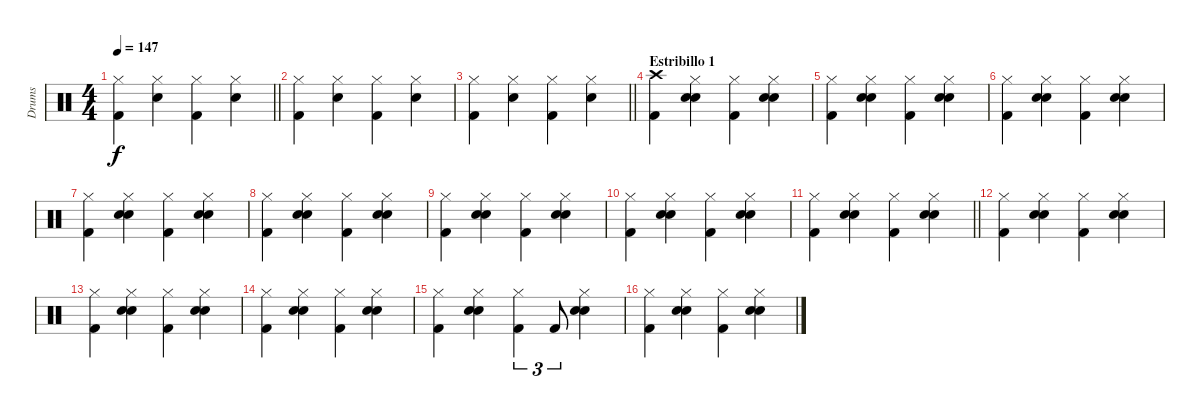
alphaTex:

\track ("Drums" "Drums") {instrument percussion}
\staff {score}
\articulation defaults
\ts (4 4)
\tempo 147
\clef neutral
\barLineRight lightlight
\ks c
("Hi-Hat (closed)" "Kick (hit) 2").4{dy f} ("Hi-Hat (closed)" "Electric Snare (hit)").4 ("Hi-Hat (closed)" "Kick (hit) 2").4 ("Hi-Hat (closed)" "Electric Snare (hit)").4 |
("Hi-Hat (closed)" "Kick (hit) 2").4 ("Hi-Hat (closed)" "Electric Snare (hit)").4 ("Hi-Hat (closed)" "Kick (hit) 2").4 ("Hi-Hat (closed)" "Electric Snare (hit)").4 |
\barLineRight lightlight
("Hi-Hat (closed)" "Kick (hit) 2").4 ("Hi-Hat (closed)" "Electric Snare (hit)").4 ("Hi-Hat (closed)" "Kick (hit) 2").4 ("Hi-Hat (closed)" "Electric Snare (hit)").4 |
\section ("" "Estribillo 1")
("Crash high (hit)" "Kick (hit) 2").4 ("Hi-Hat (closed)" "Electric Snare (hit)" "Hand Clap (hit)").4 ("Hi-Hat (closed)" "Kick (hit) 2").4 ("Hi-Hat (closed)" "Electric Snare (hit)" "Hand Clap (hit)").4 |
("Hi-Hat (closed)" "Kick (hit) 2").4 ("Hi-Hat (closed)" "Electric Snare (hit)" "Hand Clap (hit)").4 ("Hi-Hat (closed)" "Kick (hit) 2").4 ("Hi-Hat (closed)" "Electric Snare (hit)" "Hand Clap (hit)").4 |
("Hi-Hat (closed)" "Kick (hit) 2").4 ("Hi-Hat (closed)" "Electric Snare (hit)" "Hand Clap (hit)").4 ("Hi-Hat (closed)" "Kick (hit) 2").4 ("Hi-Hat (closed)" "Electric Snare (hit)" "Hand Clap (hit)").4 |
("Hi-Hat (closed)" "Kick (hit) 2").4 ("Hi-Hat (closed)" "Electric Snare (hit)" "Hand Clap (hit)").4 ("Hi-Hat (closed)" "Kick (hit) 2").4 ("Hi-Hat (closed)" "Electric Snare (hit)" "Hand Clap (hit)").4 |
("Hi-Hat (closed)" "Kick (hit) 2").4 ("Hi-Hat (closed)" "Electric Snare (hit)" "Hand Clap (hit)").4 ("Hi-Hat (closed)" "Kick (hit) 2").4 ("Hi-Hat (closed)" "Electric Snare (hit)" "Hand Clap (hit)").4 |
("Hi-Hat (closed)" "Kick (hit) 2").4 ("Hi-Hat (closed)" "Electric Snare (hit)" "Hand Clap (hit)").4 ("Hi-Hat (closed)" "Kick (hit) 2").4 ("Hi-Hat (closed)" "Electric Snare (hit)" "Hand Clap (hit)").4 |
("Hi-Hat (closed)" "Kick (hit) 2").4 ("Hi-Hat (closed)" "Electric Snare (hit)" "Hand Clap (hit)").4 ("Hi-Hat (closed)" "Kick (hit) 2").4 ("Hi-Hat (closed)" "Electric Snare (hit)" "Hand Clap (hit)").4 |
\barLineRight lightlight
("Hi-Hat (closed)" "Kick (hit) 2").4 ("Hi-Hat (closed)" "Electric Snare (hit)" "Hand Clap (hit)").4 ("Hi-Hat (closed)" "Kick (hit) 2").4 ("Hi-Hat (closed)" "Electric Snare (hit)" "Hand Clap (hit)").4 |
("Hi-Hat (closed)" "Kick (hit) 2").4 ("Hi-Hat (closed)" "Electric Snare (hit)" "Hand Clap (hit)").4 ("Hi-Hat (closed)" "Kick (hit) 2").4 ("Hi-Hat (closed)" "Electric Snare (hit)" "Hand Clap (hit)").4 |
("Hi-Hat (closed)" "Kick (hit) 2").4 ("Hi-Hat (closed)" "Electric Snare (hit)" "Hand Clap (hit)").4 ("Hi-Hat (closed)" "Kick (hit) 2").4 ("Hi-Hat (closed)" "Electric Snare (hit)" "Hand Clap (hit)").4 |
("Hi-Hat (closed)" "Kick (hit) 2").4 ("Hi-Hat (closed)" "Electric Snare (hit)" "Hand Clap (hit)").4 ("Hi-Hat (closed)" "Kick (hit) 2").4 ("Hi-Hat (closed)" "Electric Snare (hit)" "Hand Clap (hit)").4 |
("Hi-Hat (closed)" "Kick (hit) 2").4 ("Hi-Hat (closed)" "Electric Snare (hit)" "Hand Clap (hit)").4 ("Hi-Hat (closed)" "Kick (hit) 2").4{tu (3 2)} "Kick (hit) 2".8{tu (3 2)} ("Hi-Hat (closed)" "Electric Snare (hit)" "Hand Clap (hit)").4 |
("Hi-Hat (closed)" "Kick (hit) 2").4 ("Hi-Hat (closed)" "Electric Snare (hit)" "Hand Clap (hit)").4 ("Hi-Hat (closed)" "Kick (hit) 2").4 ("Hi-Hat (closed)" "Electric Snare (hit)" "Hand Clap (hit)").4
